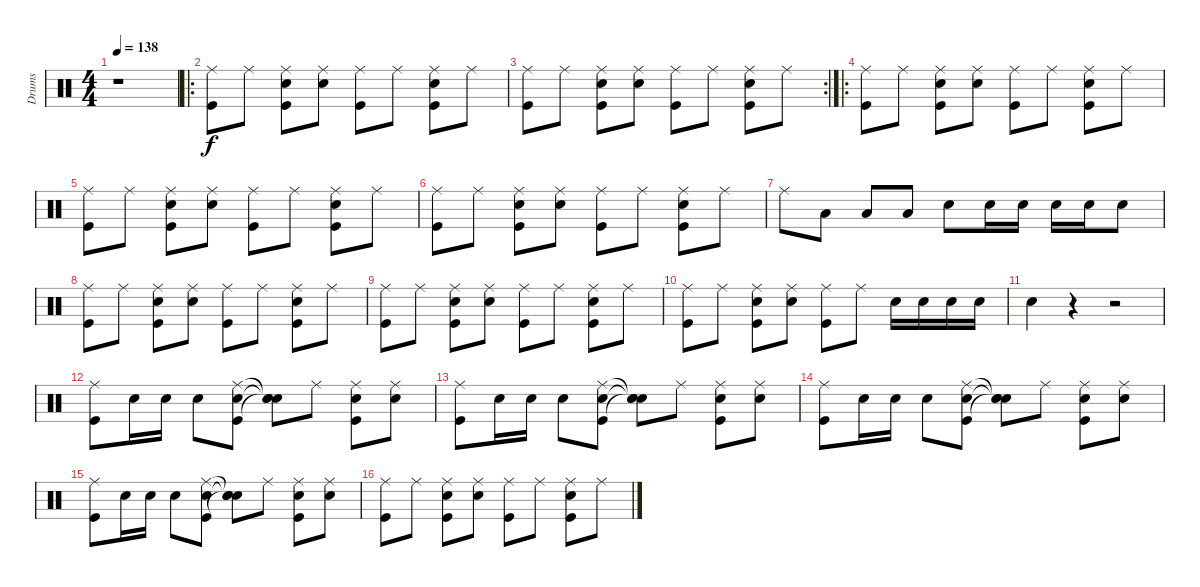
\track ("Drums" "Drums") {instrument percussion}
\staff {score}
\articulation defaults
\ts (4 4)
\tempo 138
\clef neutral
\ks c
r.1{dy f} |
\ro
("Ride (middle)" "Kick (hit)").8 "Ride (middle)".8 ("Ride (middle)" "Snare (hit) 2" "Kick (hit)").8 ("Ride (middle)" "Snare (hit) 2").8 ("Ride (middle)" "Kick (hit)").8 "Ride (middle)".8 ("Ride (middle)" "Snare (hit) 2" "Kick (hit)").8 "Ride (middle)".8 |
\rc 2
("Ride (middle)" "Kick (hit)").8 "Ride (middle)".8 ("Ride (middle)" "Snare (hit) 2" "Kick (hit)").8 ("Ride (middle)" "Snare (hit) 2").8 ("Ride (middle)" "Kick (hit)").8 "Ride (middle)".8 ("Ride (middle)" "Snare (hit) 2" "Kick (hit)").8 "Ride (middle)".8 |
\ro
("Ride (middle)" "Kick (hit)").8 "Ride (middle)".8 ("Ride (middle)" "Snare (hit) 2" "Kick (hit)").8 ("Ride (middle)" "Snare (hit) 2").8 ("Ride (middle)" "Kick (hit)").8 "Ride (middle)".8 ("Ride (middle)" "Snare (hit) 2" "Kick (hit)").8 "Ride (middle)".8 |
("Ride (middle)" "Kick (hit)").8 "Ride (middle)".8 ("Ride (middle)" "Snare (hit) 2" "Kick (hit)").8 ("Ride (middle)" "Snare (hit) 2").8 ("Ride (middle)" "Kick (hit)").8 "Ride (middle)".8 ("Ride (middle)" "Snare (hit) 2" "Kick (hit)").8 "Ride (middle)".8 |
("Ride (middle)" "Kick (hit)").8 "Ride (middle)".8 ("Ride (middle)" "Snare (hit) 2" "Kick (hit)").8 ("Ride (middle)" "Snare (hit) 2").8 ("Ride (middle)" "Kick (hit)").8 "Ride (middle)".8 ("Ride (middle)" "Snare (hit) 2" "Kick (hit)").8 "Ride (middle)".8 |
"Ride (middle)".8 "Low Tom (hit)".8 "Low Tom (hit)".8 "Low Tom (hit)".8 "Snare (hit) 2".8 "Snare (hit) 2".16 "Snare (hit) 2".16 "Snare (hit) 2".16 "Snare (hit) 2".16 "Snare (hit) 2".8 |
("Ride (middle)" "Kick (hit)").8 "Ride (middle)".8 ("Ride (middle)" "Snare (hit) 2" "Kick (hit)").8 ("Ride (middle)" "Snare (hit) 2").8 ("Ride (middle)" "Kick (hit)").8 "Ride (middle)".8 ("Ride (middle)" "Snare (hit) 2" "Kick (hit)").8 "Ride (middle)".8 |
("Ride (middle)" "Kick (hit)").8 "Ride (middle)".8 ("Ride (middle)" "Snare (hit) 2" "Kick (hit)").8 ("Ride (middle)" "Snare (hit) 2").8 ("Ride (middle)" "Kick (hit)").8 "Ride (middle)".8 ("Ride (middle)" "Snare (hit) 2" "Kick (hit)").8 "Ride (middle)".8 |
("Ride (middle)" "Kick (hit)").8 "Ride (middle)".8 ("Ride (middle)" "Snare (hit) 2" "Kick (hit)").8 ("Ride (middle)" "Snare (hit) 2").8 ("Ride (middle)" "Kick (hit)").8 "Ride (middle)".8 "Snare (hit) 2".16 "Snare (hit) 2".16 "Snare (hit) 2".16 "Snare (hit) 2".16 |
"Snare (hit) 2".4 r.4 r.2 |
("Ride (middle)" "Kick (hit)").8 "Snare (hit) 2".16 "Snare (hit) 2".16 "Snare (hit) 2".8 ("Ride (middle)" "Snare (hit) 2" "Kick (hit)").8 ("Snare (hit)"{t} "Snare (hit)"{t} "Snare (hit)"{t}).8 "Ride (middle)".8 ("Ride (middle)" "Snare (hit) 2" "Kick (hit)").8 ("Ride (middle)" "Snare (hit) 2").8 |
("Ride (middle)" "Kick (hit)").8 "Snare (hit) 2".16 "Snare (hit) 2".16 "Snare (hit) 2".8 ("Ride (middle)" "Snare (hit) 2" "Kick (hit)").8 ("Snare (hit)"{t} "Snare (hit)"{t} "Snare (hit)"{t}).8 "Ride (middle)".8 ("Ride (middle)" "Snare (hit) 2" "Kick (hit)").8 ("Ride (middle)" "Snare (hit) 2").8 |
("Ride (middle)" "Kick (hit)").8 "Snare (hit) 2".16 "Snare (hit) 2".16 "Snare (hit) 2".8 ("Ride (middle)" "Snare (hit) 2" "Kick (hit)").8 ("Snare (hit)"{t} "Snare (hit)"{t} "Snare (hit)"{t}).8 "Ride (middle)".8 ("Ride (middle)" "Snare (hit) 2" "Kick (hit)").8 ("Ride (middle)" "Snare (hit) 2").8 |
("Ride (middle)" "Kick (hit)").8 "Snare (hit) 2".16 "Snare (hit) 2".16 "Snare (hit) 2".8 ("Ride (middle)" "Snare (hit) 2" "Kick (hit)").8 ("Snare (hit)"{t} "Snare (hit)"{t} "Snare (hit)"{t}).8 "Ride (middle)".8 ("Ride (middle)" "Snare (hit) 2" "Kick (hit)").8 ("Ride (middle)" "Snare (hit) 2").8 |
("Ride (middle)" "Kick (hit)").8 "Ride (middle)".8 ("Ride (middle)" "Snare (hit) 2" "Kick (hit)").8 ("Ride (middle)" "Snare (hit) 2").8 ("Ride (middle)" "Kick (hit)").8 "Ride (middle)".8 ("Ride (middle)" "Snare (hit) 2" "Kick (hit)").8 "Ride (middle)".8
